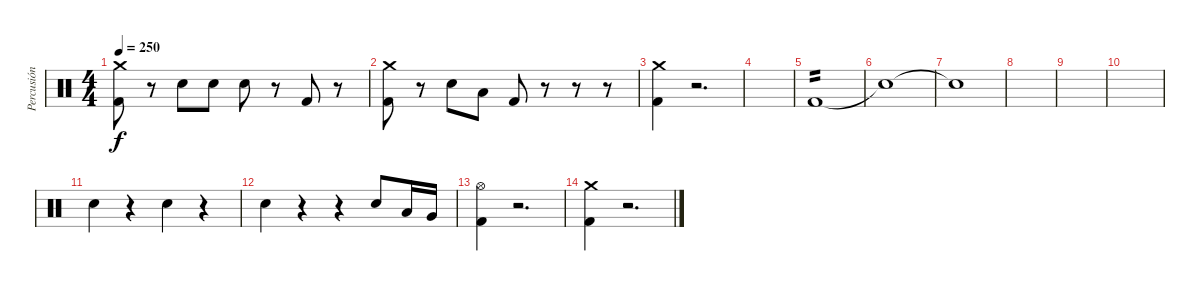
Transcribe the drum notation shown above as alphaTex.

\track ("Percusión" "Percusión") {instrument percussion}
\staff {score}
\articulation defaults
\ts (4 4)
\tempo 250
\clef neutral
\ks c
("Crash medium (hit)" "Kick (hit) 2").8{dy f} r.8 "Electric Snare (hit)".8 "Electric Snare (hit)".8 "Electric Snare (hit)".8 r.8 "Kick (hit) 2".8 r.8 |
("Crash medium (hit)" "Kick (hit) 2").8 r.8 "Electric Snare (hit)".8 "Low Tom (hit)".8 "Kick (hit) 2".8 r.8 r.8 r.8 |
("Crash medium (hit)" "Kick (hit) 2").4 r.2{d} |
|
"Kick (hit) 2".1{tp 2} |
"Snare (hit)"{t}.1 |
"Snare (hit)"{t}.1 |
|
|
|
"Electric Snare (hit)".4 r.4 "Electric Snare (hit)".4 r.4 |
"Electric Snare (hit)".4 r.4 r.4 "Electric Snare (hit)".8 "Low Tom (hit)".16 "Very Low Tom (hit)".16 |
("Hi-Hat (open)" "Kick (hit) 2").4 r.2{d} |
("Crash medium (hit)" "Kick (hit) 2").4 r.2{d}
